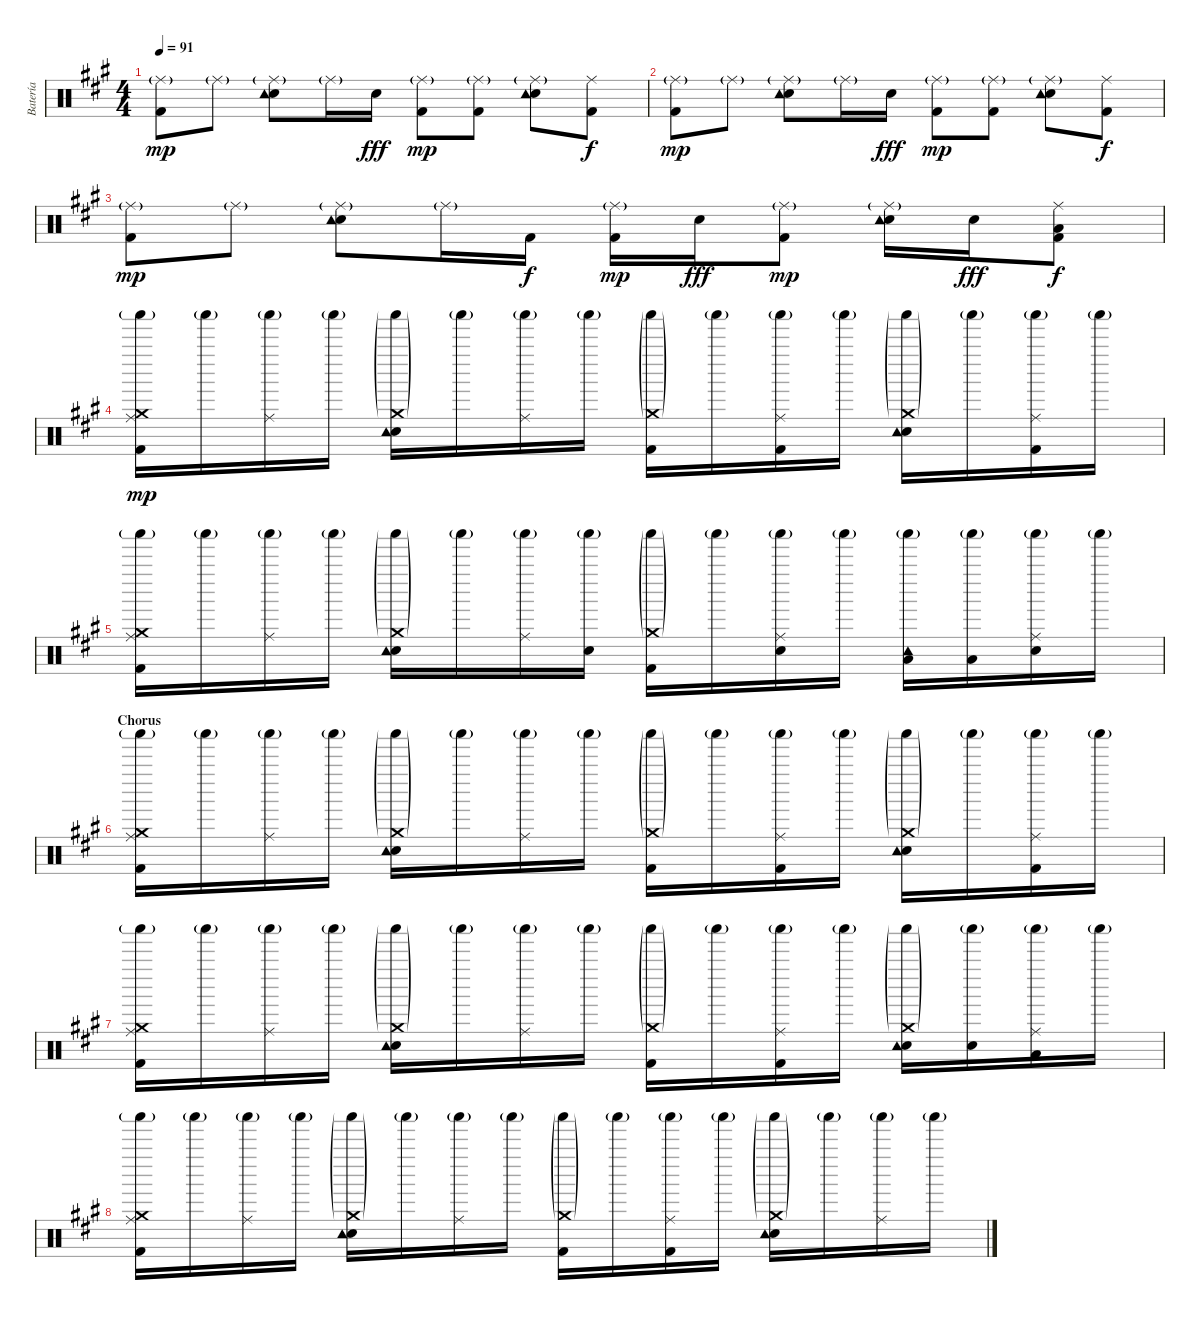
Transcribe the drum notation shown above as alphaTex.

\track ("Batería" "Batería") {instrument percussion}
\staff {score}
\articulation defaults
\ts (4 4)
\tempo 91
\clef neutral
\ks a
("Kick (hit) 2" "Ride (middle)"{g}).8{dy mp} "Ride (middle)"{g}.8 ("Electric Snare (hit)" "Ride (middle)"{g} "Tambourine (hit)").8 "Ride (middle)"{g}.16 "Electric Snare (hit)".16{dy fff} ("Kick (hit) 2" "Ride (middle)"{g}).8{dy mp} ("Kick (hit) 2" "Ride (middle)"{g}).8 ("Electric Snare (hit)" "Ride (middle)"{g} "Tambourine (hit)").8 ("Kick (hit) 2" "Ride (middle)").8{dy f} |
("Kick (hit) 2" "Ride (middle)"{g}).8{dy mp} "Ride (middle)"{g}.8 ("Electric Snare (hit)" "Ride (middle)"{g} "Tambourine (hit)").8 "Ride (middle)"{g}.16 "Electric Snare (hit)".16{dy fff} ("Kick (hit) 2" "Ride (middle)"{g}).8{dy mp} ("Kick (hit) 2" "Ride (middle)"{g}).8 ("Electric Snare (hit)" "Ride (middle)"{g} "Tambourine (hit)").8 ("Kick (hit) 2" "Ride (middle)").8{dy f} |
("Kick (hit) 2" "Ride (middle)"{g}).8{dy mp} "Ride (middle)"{g}.8 ("Electric Snare (hit)" "Ride (middle)"{g} "Tambourine (hit)").8 "Ride (middle)"{g}.16 "Kick (hit) 2".16{dy f} ("Kick (hit) 2" "Ride (middle)"{g}).16{dy mp} "Electric Snare (hit)".16{dy fff} ("Kick (hit) 2" "Ride (middle)"{g}).8{dy mp} ("Electric Snare (hit)" "Ride (middle)"{g} "Tambourine (hit)").16 "Electric Snare (hit)".16{dy fff} ("Kick (hit) 2" "Ride (middle)" "Low Tom (hit)").8{dy f} |
("Kick (hit) 2" "Ride (middle)" "Crash medium (hit)" "Shaker (hit)"{g}).16{dy mp} "Shaker (hit)"{g}.16 ("Ride (middle)" "Shaker (hit)"{g}).16 "Shaker (hit)"{g}.16 ("Electric Snare (hit)" "Crash medium (hit)"{g} "Tambourine (hit)" "Shaker (hit)"{g}).16 "Shaker (hit)"{g}.16 ("Ride (middle)" "Shaker (hit)"{g}).16 "Shaker (hit)"{g}.16 ("Kick (hit) 2" "Crash medium (hit)"{g} "Shaker (hit)"{g}).16 "Shaker (hit)"{g}.16 ("Kick (hit) 2" "Ride (middle)" "Shaker (hit)"{g}).16 "Shaker (hit)"{g}.16 ("Electric Snare (hit)" "Crash medium (hit)"{g} "Tambourine (hit)" "Shaker (hit)"{g}).16 "Shaker (hit)"{g}.16 ("Kick (hit) 2" "Ride (middle)" "Shaker (hit)"{g}).16 "Shaker (hit)"{g}.16 |
("Kick (hit) 2" "Ride (middle)" "Crash medium (hit)" "Shaker (hit)"{g}).16 "Shaker (hit)"{g}.16 ("Ride (middle)" "Shaker (hit)"{g}).16 "Shaker (hit)"{g}.16 ("Electric Snare (hit)" "Crash medium (hit)"{g} "Tambourine (hit)" "Shaker (hit)"{g}).16 "Shaker (hit)"{g}.16 ("Ride (middle)" "Shaker (hit)"{g}).16 ("Electric Snare (hit)" "Shaker (hit)"{g}).16 ("Kick (hit) 2" "Crash medium (hit)"{g} "Shaker (hit)"{g}).16 "Shaker (hit)"{g}.16 ("Electric Snare (hit)" "Ride (middle)" "Shaker (hit)"{g}).16 "Shaker (hit)"{g}.16 ("Low Tom (hit)" "Tambourine (hit)" "Shaker (hit)"{g}).16 ("Low Tom (hit)" "Shaker (hit)"{g}).16 ("Electric Snare (hit)" "Ride (middle)" "Shaker (hit)"{g}).16 "Shaker (hit)"{g}.16 |
\section ("" "Chorus")
("Kick (hit) 2" "Ride (middle)" "Crash medium (hit)" "Shaker (hit)"{g}).16 "Shaker (hit)"{g}.16 ("Ride (middle)" "Shaker (hit)"{g}).16 "Shaker (hit)"{g}.16 ("Electric Snare (hit)" "Crash medium (hit)"{g} "Tambourine (hit)" "Shaker (hit)"{g}).16 "Shaker (hit)"{g}.16 ("Ride (middle)" "Shaker (hit)"{g}).16 "Shaker (hit)"{g}.16 ("Kick (hit) 2" "Crash medium (hit)"{g} "Shaker (hit)"{g}).16 "Shaker (hit)"{g}.16 ("Kick (hit) 2" "Ride (middle)" "Shaker (hit)"{g}).16 "Shaker (hit)"{g}.16 ("Electric Snare (hit)" "Crash medium (hit)"{g} "Tambourine (hit)" "Shaker (hit)"{g}).16 "Shaker (hit)"{g}.16 ("Kick (hit) 2" "Ride (middle)" "Shaker (hit)"{g}).16 "Shaker (hit)"{g}.16 |
("Kick (hit) 2" "Ride (middle)" "Crash medium (hit)" "Shaker (hit)"{g}).16 "Shaker (hit)"{g}.16 ("Ride (middle)" "Shaker (hit)"{g}).16 "Shaker (hit)"{g}.16 ("Electric Snare (hit)" "Crash medium (hit)"{g} "Tambourine (hit)" "Shaker (hit)"{g}).16 "Shaker (hit)"{g}.16 ("Ride (middle)" "Shaker (hit)"{g}).16 "Shaker (hit)"{g}.16 ("Kick (hit) 2" "Crash medium (hit)"{g} "Shaker (hit)"{g}).16 "Shaker (hit)"{g}.16 ("Kick (hit) 2" "Ride (middle)" "Shaker (hit)"{g}).16 "Shaker (hit)"{g}.16 ("Electric Snare (hit)" "Crash medium (hit)"{g} "Tambourine (hit)" "Shaker (hit)"{g}).16 ("Electric Snare (hit)" "Shaker (hit)"{g}).16 ("Ride (middle)" "Low Tom (hit)" "Shaker (hit)"{g}).16 "Shaker (hit)"{g}.16 |
("Kick (hit) 2" "Ride (middle)" "Crash medium (hit)" "Shaker (hit)"{g}).16 "Shaker (hit)"{g}.16 ("Ride (middle)" "Shaker (hit)"{g}).16 "Shaker (hit)"{g}.16 ("Electric Snare (hit)" "Crash medium (hit)"{g} "Tambourine (hit)" "Shaker (hit)"{g}).16 "Shaker (hit)"{g}.16 ("Ride (middle)" "Shaker (hit)"{g}).16 "Shaker (hit)"{g}.16 ("Kick (hit) 2" "Crash medium (hit)"{g} "Shaker (hit)"{g}).16 "Shaker (hit)"{g}.16 ("Kick (hit) 2" "Ride (middle)" "Shaker (hit)"{g}).16 "Shaker (hit)"{g}.16 ("Electric Snare (hit)" "Crash medium (hit)"{g} "Tambourine (hit)" "Shaker (hit)"{g}).16 "Shaker (hit)"{g}.16 ("Ride (middle)" "Shaker (hit)"{g}).16 "Shaker (hit)"{g}.16
